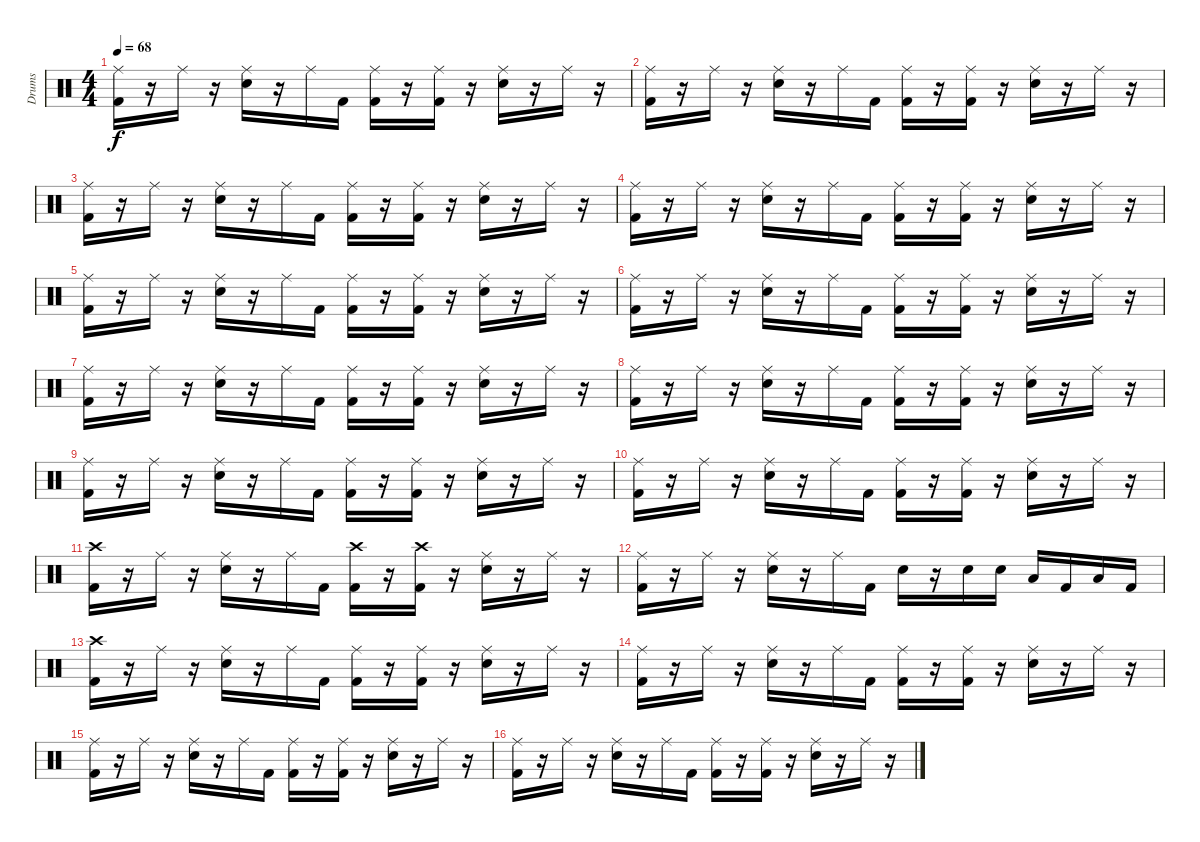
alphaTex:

\track ("Drums" "Drums") {instrument percussion}
\staff {score}
\articulation defaults
\ts (4 4)
\tempo 68
\clef neutral
\ks c
("Ride (middle)" "Kick (hit) 2").16{dy f} r.16 "Ride (middle)".16 r.16 ("Ride (middle)" "Snare (hit) 2").16 r.16 "Ride (middle)".16 "Kick (hit) 2".16 ("Ride (middle)" "Kick (hit) 2").16 r.16 ("Ride (middle)" "Kick (hit) 2").16 r.16 ("Ride (middle)" "Snare (hit) 2").16 r.16 "Ride (middle)".16 r.16 |
("Ride (middle)" "Kick (hit) 2").16 r.16 "Ride (middle)".16 r.16 ("Ride (middle)" "Snare (hit) 2").16 r.16 "Ride (middle)".16 "Kick (hit) 2".16 ("Ride (middle)" "Kick (hit) 2").16 r.16 ("Ride (middle)" "Kick (hit) 2").16 r.16 ("Ride (middle)" "Snare (hit) 2").16 r.16 "Ride (middle)".16 r.16 |
("Ride (middle)" "Kick (hit) 2").16 r.16 "Ride (middle)".16 r.16 ("Ride (middle)" "Snare (hit) 2").16 r.16 "Ride (middle)".16 "Kick (hit) 2".16 ("Ride (middle)" "Kick (hit) 2").16 r.16 ("Ride (middle)" "Kick (hit) 2").16 r.16 ("Ride (middle)" "Snare (hit) 2").16 r.16 "Ride (middle)".16 r.16 |
("Ride (middle)" "Kick (hit) 2").16 r.16 "Ride (middle)".16 r.16 ("Ride (middle)" "Snare (hit) 2").16 r.16 "Ride (middle)".16 "Kick (hit) 2".16 ("Ride (middle)" "Kick (hit) 2").16 r.16 ("Ride (middle)" "Kick (hit) 2").16 r.16 ("Ride (middle)" "Snare (hit) 2").16 r.16 "Ride (middle)".16 r.16 |
("Ride (middle)" "Kick (hit) 2").16 r.16 "Ride (middle)".16 r.16 ("Ride (middle)" "Snare (hit) 2").16 r.16 "Ride (middle)".16 "Kick (hit) 2".16 ("Ride (middle)" "Kick (hit) 2").16 r.16 ("Ride (middle)" "Kick (hit) 2").16 r.16 ("Ride (middle)" "Snare (hit) 2").16 r.16 "Ride (middle)".16 r.16 |
("Ride (middle)" "Kick (hit) 2").16 r.16 "Ride (middle)".16 r.16 ("Ride (middle)" "Snare (hit) 2").16 r.16 "Ride (middle)".16 "Kick (hit) 2".16 ("Ride (middle)" "Kick (hit) 2").16 r.16 ("Ride (middle)" "Kick (hit) 2").16 r.16 ("Ride (middle)" "Snare (hit) 2").16 r.16 "Ride (middle)".16 r.16 |
("Ride (middle)" "Kick (hit) 2").16 r.16 "Ride (middle)".16 r.16 ("Ride (middle)" "Snare (hit) 2").16 r.16 "Ride (middle)".16 "Kick (hit) 2".16 ("Ride (middle)" "Kick (hit) 2").16 r.16 ("Ride (middle)" "Kick (hit) 2").16 r.16 ("Ride (middle)" "Snare (hit) 2").16 r.16 "Ride (middle)".16 r.16 |
("Ride (middle)" "Kick (hit) 2").16 r.16 "Ride (middle)".16 r.16 ("Ride (middle)" "Snare (hit) 2").16 r.16 "Ride (middle)".16 "Kick (hit) 2".16 ("Ride (middle)" "Kick (hit) 2").16 r.16 ("Ride (middle)" "Kick (hit) 2").16 r.16 ("Ride (middle)" "Snare (hit) 2").16 r.16 "Ride (middle)".16 r.16 |
("Ride (middle)" "Kick (hit) 2").16 r.16 "Ride (middle)".16 r.16 ("Ride (middle)" "Snare (hit) 2").16 r.16 "Ride (middle)".16 "Kick (hit) 2".16 ("Ride (middle)" "Kick (hit) 2").16 r.16 ("Ride (middle)" "Kick (hit) 2").16 r.16 ("Ride (middle)" "Snare (hit) 2").16 r.16 "Ride (middle)".16 r.16 |
("Ride (middle)" "Kick (hit) 2").16 r.16 "Ride (middle)".16 r.16 ("Ride (middle)" "Snare (hit) 2").16 r.16 "Ride (middle)".16 "Kick (hit) 2".16 ("Ride (middle)" "Kick (hit) 2").16 r.16 ("Ride (middle)" "Kick (hit) 2").16 r.16 ("Ride (middle)" "Snare (hit) 2").16 r.16 "Ride (middle)".16 r.16 |
("Crash high (hit)" "Kick (hit) 2").16 r.16 "Ride (middle)".16 r.16 ("Ride (middle)" "Snare (hit) 2").16 r.16 "Ride (middle)".16 "Kick (hit) 2".16 ("Crash high (hit)" "Kick (hit) 2").16 r.16 ("Crash high (hit)" "Kick (hit) 2").16 r.16 ("Ride (middle)" "Snare (hit) 2").16 r.16 "Ride (middle)".16 r.16 |
("Ride (middle)" "Kick (hit) 2").16 r.16 "Ride (middle)".16 r.16 ("Ride (middle)" "Snare (hit) 2").16 r.16 "Ride (middle)".16 "Kick (hit) 2".16 "Snare (hit) 2".16 r.16 "Snare (hit) 2".16 "Snare (hit) 2".16 "Low Tom (hit)".16 "Kick (hit) 2".16 "Low Floor Tom (hit)".16 "Kick (hit) 2".16 |
("Crash high (hit)" "Kick (hit) 2").16 r.16 "Ride (middle)".16 r.16 ("Ride (middle)" "Snare (hit) 2").16 r.16 "Ride (middle)".16 "Kick (hit) 2".16 ("Ride (middle)" "Kick (hit) 2").16 r.16 ("Ride (middle)" "Kick (hit) 2").16 r.16 ("Ride (middle)" "Snare (hit) 2").16 r.16 "Ride (middle)".16 r.16 |
("Ride (middle)" "Kick (hit) 2").16 r.16 "Ride (middle)".16 r.16 ("Ride (middle)" "Snare (hit) 2").16 r.16 "Ride (middle)".16 "Kick (hit) 2".16 ("Ride (middle)" "Kick (hit) 2").16 r.16 ("Ride (middle)" "Kick (hit) 2").16 r.16 ("Ride (middle)" "Snare (hit) 2").16 r.16 "Ride (middle)".16 r.16 |
("Ride (middle)" "Kick (hit) 2").16 r.16 "Ride (middle)".16 r.16 ("Ride (middle)" "Snare (hit) 2").16 r.16 "Ride (middle)".16 "Kick (hit) 2".16 ("Ride (middle)" "Kick (hit) 2").16 r.16 ("Ride (middle)" "Kick (hit) 2").16 r.16 ("Ride (middle)" "Snare (hit) 2").16 r.16 "Ride (middle)".16 r.16 |
("Ride (middle)" "Kick (hit) 2").16 r.16 "Ride (middle)".16 r.16 ("Ride (middle)" "Snare (hit) 2").16 r.16 "Ride (middle)".16 "Kick (hit) 2".16 ("Ride (middle)" "Kick (hit) 2").16 r.16 ("Ride (middle)" "Kick (hit) 2").16 r.16 ("Ride (middle)" "Snare (hit) 2").16 r.16 "Ride (middle)".16 r.16
